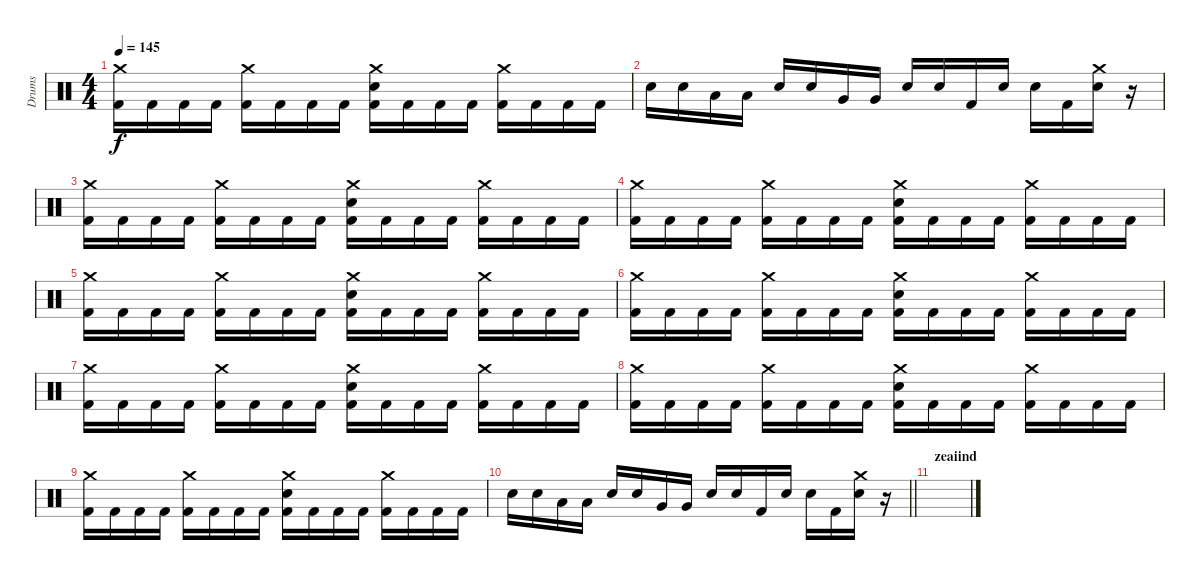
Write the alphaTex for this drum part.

\track ("Drums" "Drums") {instrument percussion}
\staff {score}
\articulation defaults
\ts (4 4)
\tempo 145
\clef neutral
\ks c
("Crash medium (hit)" "Kick (hit) 2").16{dy f} "Kick (hit) 2".16 "Kick (hit) 2".16 "Kick (hit) 2".16 ("Crash medium (hit)" "Kick (hit) 2").16 "Kick (hit) 2".16 "Kick (hit) 2".16 "Kick (hit) 2".16 ("Crash medium (hit)" "Snare (hit) 2" "Kick (hit) 2").16 "Kick (hit) 2".16 "Kick (hit) 2".16 "Kick (hit) 2".16 ("Crash medium (hit)" "Kick (hit) 2").16 "Kick (hit) 2".16 "Kick (hit) 2".16 "Kick (hit) 2".16 |
"Snare (hit) 2".16 "Snare (hit) 2".16 "Low Tom (hit)".16 "Low Tom (hit)".16 "Snare (hit) 2".16 "Snare (hit) 2".16 "Very Low Tom (hit)".16 "Very Low Tom (hit)".16 "Snare (hit) 2".16 "Snare (hit) 2".16 "Kick (hit) 2".16 "Snare (hit) 2".16 "Snare (hit) 2".16 "Kick (hit) 2".16 ("Crash medium (hit)" "Snare (hit) 2").16 r.16 |
("Crash medium (hit)" "Kick (hit) 2").16 "Kick (hit) 2".16 "Kick (hit) 2".16 "Kick (hit) 2".16 ("Crash medium (hit)" "Kick (hit) 2").16 "Kick (hit) 2".16 "Kick (hit) 2".16 "Kick (hit) 2".16 ("Crash medium (hit)" "Snare (hit) 2" "Kick (hit) 2").16 "Kick (hit) 2".16 "Kick (hit) 2".16 "Kick (hit) 2".16 ("Crash medium (hit)" "Kick (hit) 2").16 "Kick (hit) 2".16 "Kick (hit) 2".16 "Kick (hit) 2".16 |
("Crash medium (hit)" "Kick (hit) 2").16 "Kick (hit) 2".16 "Kick (hit) 2".16 "Kick (hit) 2".16 ("Crash medium (hit)" "Kick (hit) 2").16 "Kick (hit) 2".16 "Kick (hit) 2".16 "Kick (hit) 2".16 ("Crash medium (hit)" "Snare (hit) 2" "Kick (hit) 2").16 "Kick (hit) 2".16 "Kick (hit) 2".16 "Kick (hit) 2".16 ("Crash medium (hit)" "Kick (hit) 2").16 "Kick (hit) 2".16 "Kick (hit) 2".16 "Kick (hit) 2".16 |
("Crash medium (hit)" "Kick (hit) 2").16 "Kick (hit) 2".16 "Kick (hit) 2".16 "Kick (hit) 2".16 ("Crash medium (hit)" "Kick (hit) 2").16 "Kick (hit) 2".16 "Kick (hit) 2".16 "Kick (hit) 2".16 ("Crash medium (hit)" "Snare (hit) 2" "Kick (hit) 2").16 "Kick (hit) 2".16 "Kick (hit) 2".16 "Kick (hit) 2".16 ("Crash medium (hit)" "Kick (hit) 2").16 "Kick (hit) 2".16 "Kick (hit) 2".16 "Kick (hit) 2".16 |
("Crash medium (hit)" "Kick (hit) 2").16 "Kick (hit) 2".16 "Kick (hit) 2".16 "Kick (hit) 2".16 ("Crash medium (hit)" "Kick (hit) 2").16 "Kick (hit) 2".16 "Kick (hit) 2".16 "Kick (hit) 2".16 ("Crash medium (hit)" "Snare (hit) 2" "Kick (hit) 2").16 "Kick (hit) 2".16 "Kick (hit) 2".16 "Kick (hit) 2".16 ("Crash medium (hit)" "Kick (hit) 2").16 "Kick (hit) 2".16 "Kick (hit) 2".16 "Kick (hit) 2".16 |
("Crash medium (hit)" "Kick (hit) 2").16 "Kick (hit) 2".16 "Kick (hit) 2".16 "Kick (hit) 2".16 ("Crash medium (hit)" "Kick (hit) 2").16 "Kick (hit) 2".16 "Kick (hit) 2".16 "Kick (hit) 2".16 ("Crash medium (hit)" "Snare (hit) 2" "Kick (hit) 2").16 "Kick (hit) 2".16 "Kick (hit) 2".16 "Kick (hit) 2".16 ("Crash medium (hit)" "Kick (hit) 2").16 "Kick (hit) 2".16 "Kick (hit) 2".16 "Kick (hit) 2".16 |
("Crash medium (hit)" "Kick (hit) 2").16 "Kick (hit) 2".16 "Kick (hit) 2".16 "Kick (hit) 2".16 ("Crash medium (hit)" "Kick (hit) 2").16 "Kick (hit) 2".16 "Kick (hit) 2".16 "Kick (hit) 2".16 ("Crash medium (hit)" "Snare (hit) 2" "Kick (hit) 2").16 "Kick (hit) 2".16 "Kick (hit) 2".16 "Kick (hit) 2".16 ("Crash medium (hit)" "Kick (hit) 2").16 "Kick (hit) 2".16 "Kick (hit) 2".16 "Kick (hit) 2".16 |
("Crash medium (hit)" "Kick (hit) 2").16 "Kick (hit) 2".16 "Kick (hit) 2".16 "Kick (hit) 2".16 ("Crash medium (hit)" "Kick (hit) 2").16 "Kick (hit) 2".16 "Kick (hit) 2".16 "Kick (hit) 2".16 ("Crash medium (hit)" "Snare (hit) 2" "Kick (hit) 2").16 "Kick (hit) 2".16 "Kick (hit) 2".16 "Kick (hit) 2".16 ("Crash medium (hit)" "Kick (hit) 2").16 "Kick (hit) 2".16 "Kick (hit) 2".16 "Kick (hit) 2".16 |
\barLineRight lightlight "Snare (hit) 2".16 "Snare (hit) 2".16 "Low Tom (hit)".16 "Low Tom (hit)".16 "Snare (hit) 2".16 "Snare (hit) 2".16 "Very Low Tom (hit)".16 "Very Low Tom (hit)".16 "Snare (hit) 2".16 "Snare (hit) 2".16 "Kick (hit) 2".16 "Snare (hit) 2".16 "Snare (hit) 2".16 "Kick (hit) 2".16
("Crash medium (hit)" "Snare (hit) 2").16 r.16 |
\section ("" "zeaiind")
